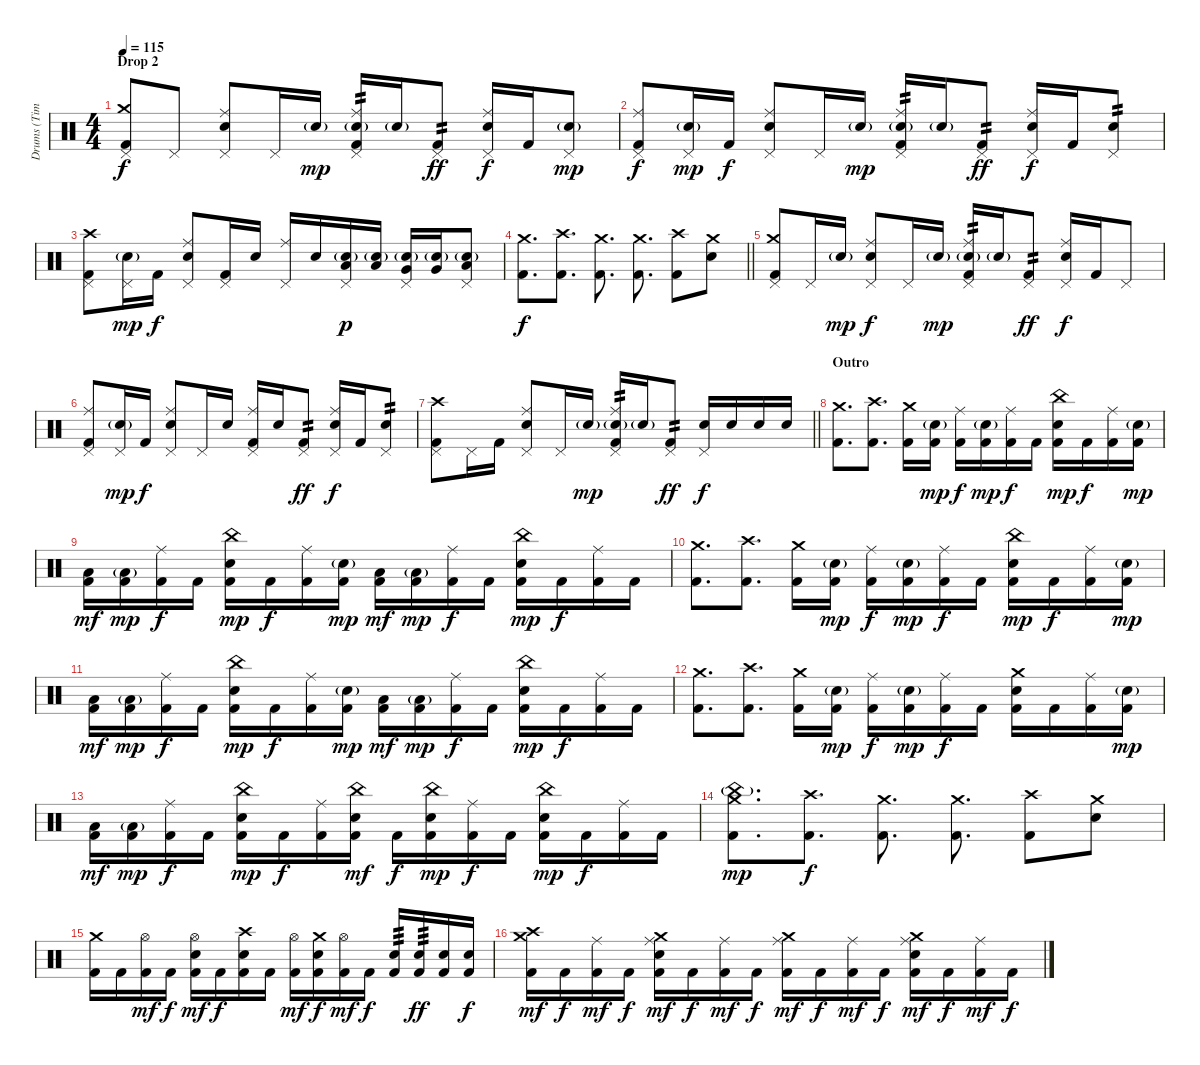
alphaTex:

\track ("Drums (Tim Alexander)" "Drums (Tim") {instrument percussion}
\staff {score}
\articulation defaults
\ts (4 4)
\section ("" "Drop 2")
\tempo 115
\clef neutral
\ks c
("Pedal Hi-Hat (hit)" "Crash medium (hit)" "Kick (hit) 2").8{dy f volume 14} "Pedal Hi-Hat (hit)".8 ("Pedal Hi-Hat (hit)" "Ride (middle)" "Electric Snare (hit)").8 "Pedal Hi-Hat (hit)".16 "Electric Snare (hit)"{g}.16{dy mp} ("Pedal Hi-Hat (hit)" "Ride (middle)" "Electric Snare (hit)"{g} "Kick (hit) 2").16{tp 2} "Electric Snare (hit)"{g}.16 ("Pedal Hi-Hat (hit)" "Kick (hit) 2").8{tp 2 dy ff} ("Pedal Hi-Hat (hit)" "Ride (middle)" "Electric Snare (hit)").16{dy f} "Kick (hit) 2".16 ("Pedal Hi-Hat (hit)" "Electric Snare (hit)"{g}).8{dy mp} |
("Pedal Hi-Hat (hit)" "Ride (middle)" "Kick (hit) 2").8{dy f} ("Pedal Hi-Hat (hit)" "Electric Snare (hit)"{g}).16{dy mp} "Kick (hit) 2".16{dy f} ("Pedal Hi-Hat (hit)" "Ride (middle)" "Electric Snare (hit)").8 "Pedal Hi-Hat (hit)".16 "Electric Snare (hit)"{g}.16{dy mp} ("Pedal Hi-Hat (hit)" "Ride (middle)" "Electric Snare (hit)"{g} "Kick (hit) 2").16{tp 2} "Electric Snare (hit)"{g}.16 ("Pedal Hi-Hat (hit)" "Kick (hit) 2").8{tp 2 dy ff} ("Pedal Hi-Hat (hit)" "Ride (middle)" "Electric Snare (hit)").16{dy f} "Kick (hit) 2".16 ("Pedal Hi-Hat (hit)" "Electric Snare (hit)").8{tp 2} |
("Pedal Hi-Hat (hit)" "Crash high (hit)" "Kick (hit) 2").8 ("Pedal Hi-Hat (hit)" "Electric Snare (hit)"{g}).16{dy mp} "Kick (hit) 2".16{dy f} ("Pedal Hi-Hat (hit)" "Ride (middle)" "Electric Snare (hit)").8 ("Pedal Hi-Hat (hit)" "Kick (hit) 2").16 "Electric Snare (hit)".16 ("Pedal Hi-Hat (hit)" "Ride (middle)").16 "Electric Snare (hit)".16 ("Pedal Hi-Hat (hit)" "Low Tom (hit)" "Electric Snare (hit)"{g}).16{dy p} ("Low Tom (hit)" "Electric Snare (hit)"{g}).16 ("Pedal Hi-Hat (hit)" "Very Low Tom (hit)" "Electric Snare (hit)"{g}).16 ("Very Low Tom (hit)" "Electric Snare (hit)"{g}).16 ("Pedal Hi-Hat (hit)" "Low Floor Tom (hit)" "Electric Snare (hit)"{g}).8 |
\barLineRight lightlight
("Crash medium (hit)" "Kick (hit) 2").8{d dy f} ("Crash high (hit)" "Kick (hit) 2").8{d} ("Crash medium (hit)" "Kick (hit) 2").8{d} ("Crash medium (hit)" "Kick (hit) 2").8{d} ("Crash high (hit)" "Kick (hit) 2").8 ("Crash medium (hit)" "Electric Snare (hit)").8 |
("Pedal Hi-Hat (hit)" "Crash medium (hit)" "Kick (hit) 2").8 "Pedal Hi-Hat (hit)".16 "Electric Snare (hit)"{g}.16{dy mp} ("Pedal Hi-Hat (hit)" "Ride (middle)" "Electric Snare (hit)").8{dy f} "Pedal Hi-Hat (hit)".16 "Electric Snare (hit)"{g}.16{dy mp} ("Pedal Hi-Hat (hit)" "Ride (middle)" "Electric Snare (hit)"{g} "Kick (hit) 2").16{tp 2} "Electric Snare (hit)"{g}.16 ("Pedal Hi-Hat (hit)" "Kick (hit) 2").8{tp 2 dy ff} ("Pedal Hi-Hat (hit)" "Ride (middle)" "Electric Snare (hit)").16{dy f} "Kick (hit) 2".16 "Pedal Hi-Hat (hit)".8 |
("Pedal Hi-Hat (hit)" "Ride (middle)" "Kick (hit) 2").8 ("Pedal Hi-Hat (hit)" "Electric Snare (hit)"{g}).16{dy mp} "Kick (hit) 2".16{dy f} ("Pedal Hi-Hat (hit)" "Ride (middle)" "Electric Snare (hit)").8 "Pedal Hi-Hat (hit)".16 "Electric Snare (hit)".16 ("Pedal Hi-Hat (hit)" "Ride (middle)" "Kick (hit) 2").16 "Electric Snare (hit)".16 ("Pedal Hi-Hat (hit)" "Kick (hit) 2").8{tp 2 dy ff} ("Pedal Hi-Hat (hit)" "Ride (middle)" "Electric Snare (hit)").16{dy f} "Kick (hit) 2".16 ("Pedal Hi-Hat (hit)" "Electric Snare (hit)").8{tp 2} |
\barLineRight lightlight
("Pedal Hi-Hat (hit)" "Crash high (hit)" "Kick (hit) 2").8 "Pedal Hi-Hat (hit)".16 "Kick (hit) 2".16 ("Pedal Hi-Hat (hit)" "Ride (middle)" "Electric Snare (hit)").8 "Pedal Hi-Hat (hit)".16 "Electric Snare (hit)"{g}.16{dy mp} ("Pedal Hi-Hat (hit)" "Ride (middle)" "Electric Snare (hit)"{g} "Kick (hit) 2").16{tp 2} "Electric Snare (hit)"{g}.16 ("Pedal Hi-Hat (hit)" "Kick (hit) 2").8{tp 2 dy ff} ("Pedal Hi-Hat (hit)" "Electric Snare (hit)").16{dy f} "Electric Snare (hit)".16 "Electric Snare (hit)".16 "Electric Snare (hit)".16 |
\section ("" "Outro")
("Crash medium (hit)" "Kick (hit) 2").8{d} ("Crash high (hit)" "Kick (hit) 2").8{d} ("Crash medium (hit)" "Kick (hit) 2").16 ("Electric Snare (hit)"{g} "Kick (hit) 2").16{dy mp} ("Ride (middle)" "Kick (hit) 2").16{dy f} ("Electric Snare (hit)"{g} "Kick (hit) 2").16{dy mp} ("Ride (middle)" "Kick (hit) 2").16{dy f} "Kick (hit) 2".16 ("China (hit)" "Electric Snare (hit)" "Kick (hit) 2").16{dy mp} "Kick (hit) 2".16{dy f} ("Ride (middle)" "Kick (hit) 2").16 ("Electric Snare (hit)"{g} "Kick (hit) 2").16{dy mp} |
("Low Floor Tom (hit)" "Kick (hit) 2").16{dy mf} ("Low Floor Tom (hit)"{g} "Kick (hit) 2").16{dy mp} ("Ride (middle)" "Kick (hit) 2").16{dy f} "Kick (hit) 2".16 ("China (hit)" "Electric Snare (hit)" "Kick (hit) 2").16{dy mp} "Kick (hit) 2".16{dy f} ("Ride (middle)" "Kick (hit) 2").16 ("Electric Snare (hit)"{g} "Kick (hit) 2").16{dy mp} ("Low Floor Tom (hit)" "Kick (hit) 2").16{dy mf} ("Low Floor Tom (hit)"{g} "Kick (hit) 2").16{dy mp} ("Ride (middle)" "Kick (hit) 2").16{dy f} "Kick (hit) 2".16 ("China (hit)" "Electric Snare (hit)" "Kick (hit) 2").16{dy mp} "Kick (hit) 2".16{dy f} ("Ride (middle)" "Kick (hit) 2").16 "Kick (hit) 2".16 |
("Crash medium (hit)" "Kick (hit) 2").8{d} ("Crash high (hit)" "Kick (hit) 2").8{d} ("Crash medium (hit)" "Kick (hit) 2").16 ("Electric Snare (hit)"{g} "Kick (hit) 2").16{dy mp} ("Ride (middle)" "Kick (hit) 2").16{dy f} ("Electric Snare (hit)"{g} "Kick (hit) 2").16{dy mp} ("Ride (middle)" "Kick (hit) 2").16{dy f} "Kick (hit) 2".16 ("China (hit)" "Electric Snare (hit)" "Kick (hit) 2").16{dy mp} "Kick (hit) 2".16{dy f} ("Ride (middle)" "Kick (hit) 2").16 ("Electric Snare (hit)"{g} "Kick (hit) 2").16{dy mp} |
("Low Floor Tom (hit)" "Kick (hit) 2").16{dy mf} ("Low Floor Tom (hit)"{g} "Kick (hit) 2").16{dy mp} ("Ride (middle)" "Kick (hit) 2").16{dy f} "Kick (hit) 2".16 ("China (hit)" "Electric Snare (hit)" "Kick (hit) 2").16{dy mp} "Kick (hit) 2".16{dy f} ("Ride (middle)" "Kick (hit) 2").16 ("Electric Snare (hit)"{g} "Kick (hit) 2").16{dy mp} ("Low Floor Tom (hit)" "Kick (hit) 2").16{dy mf} ("Low Floor Tom (hit)"{g} "Kick (hit) 2").16{dy mp} ("Ride (middle)" "Kick (hit) 2").16{dy f} "Kick (hit) 2".16 ("China (hit)" "Electric Snare (hit)" "Kick (hit) 2").16{dy mp} "Kick (hit) 2".16{dy f} ("Ride (middle)" "Kick (hit) 2").16 "Kick (hit) 2".16 |
("Crash medium (hit)" "Kick (hit) 2").8{d} ("Crash high (hit)" "Kick (hit) 2").8{d} ("Crash medium (hit)" "Kick (hit) 2").16 ("Electric Snare (hit)"{g} "Kick (hit) 2").16{dy mp} ("Ride (middle)" "Kick (hit) 2").16{dy f} ("Electric Snare (hit)"{g} "Kick (hit) 2").16{dy mp} ("Ride (middle)" "Kick (hit) 2").16{dy f} "Kick (hit) 2".16 ("Crash medium (hit)" "Electric Snare (hit)" "Kick (hit) 2").16 "Kick (hit) 2".16 ("Ride (middle)" "Kick (hit) 2").16 ("Electric Snare (hit)"{g} "Kick (hit) 2").16{dy mp} |
("Low Floor Tom (hit)" "Kick (hit) 2").16{dy mf} ("Low Floor Tom (hit)"{g} "Kick (hit) 2").16{dy mp} ("Ride (middle)" "Kick (hit) 2").16{dy f} "Kick (hit) 2".16 ("China (hit)" "Electric Snare (hit)" "Kick (hit) 2").16{dy mp} "Kick (hit) 2".16{dy f} ("Ride (middle)" "Kick (hit) 2").16 ("China (hit)" "Electric Snare (hit)" "Kick (hit) 2").16{dy mf} "Kick (hit) 2".16{dy f} ("China (hit)" "Electric Snare (hit)" "Kick (hit) 2").16{dy mp} ("Ride (middle)" "Kick (hit) 2").16{dy f} "Kick (hit) 2".16 ("China (hit)" "Electric Snare (hit)" "Kick (hit) 2").16{dy mp} "Kick (hit) 2".16{dy f} ("Ride (middle)" "Kick (hit) 2").16 "Kick (hit) 2".16 |
("Crash medium (hit)" "China (hit)"{g} "Kick (hit) 2").8{d dy mp} ("Crash high (hit)" "Kick (hit) 2").8{d dy f} ("Crash medium (hit)" "Kick (hit) 2").8{d} ("Crash medium (hit)" "Kick (hit) 2").8{d} ("Crash high (hit)" "Kick (hit) 2").8 ("Crash medium (hit)" "Electric Snare (hit)").8 |
("Crash medium (hit)" "Kick (hit) 2").16 "Kick (hit) 2".16 ("Hi-Hat (open)" "Kick (hit) 2").16{dy mf} "Kick (hit) 2".16{dy f} ("Hi-Hat (open)" "Electric Snare (hit)" "Kick (hit) 2").16{dy mf} "Kick (hit) 2".16{dy f} ("Crash high (hit)" "Electric Snare (hit)" "Kick (hit) 2").16 "Kick (hit) 2".16 ("Hi-Hat (open)" "Kick (hit) 2").16{dy mf} ("Crash medium (hit)" "Electric Snare (hit)" "Kick (hit) 2").16{dy f} ("Hi-Hat (open)" "Kick (hit) 2").16{dy mf} "Kick (hit) 2".16{dy f} ("Electric Snare (hit)" "Kick (hit) 2").16{tp 3} ("Electric Snare (hit)" "Kick (hit) 2").16{tp 3 dy ff} ("Electric Snare (hit)" "Kick (hit) 2").16 ("Electric Snare (hit)" "Kick (hit) 2").16{dy f} |
("Crash medium (hit)" "Crash high (hit)" "Kick (hit) 2").16{dy mf} "Kick (hit) 2".16{dy f} ("Ride (middle)" "Kick (hit) 2").16{dy mf} "Kick (hit) 2".16{dy f} ("Crash medium (hit)" "Ride (middle)" "Electric Snare (hit)" "Kick (hit) 2").16{dy mf} "Kick (hit) 2".16{dy f} ("Ride (middle)" "Kick (hit) 2").16{dy mf} "Kick (hit) 2".16{dy f} ("Crash medium (hit)" "Ride (middle)" "Kick (hit) 2").16{dy mf} "Kick (hit) 2".16{dy f} ("Ride (middle)" "Kick (hit) 2").16{dy mf} "Kick (hit) 2".16{dy f} ("Crash medium (hit)" "Ride (middle)" "Electric Snare (hit)" "Kick (hit) 2").16{dy mf} "Kick (hit) 2".16{dy f} ("Ride (middle)" "Kick (hit) 2").16{dy mf} "Kick (hit) 2".16{dy f}
